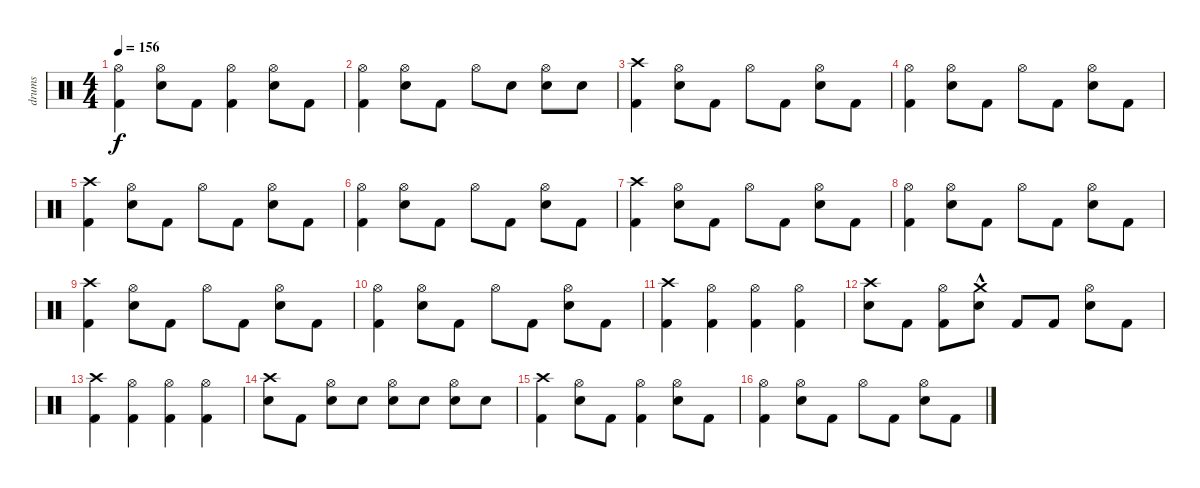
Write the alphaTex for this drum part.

\track ("drums" "drums") {instrument percussion}
\staff {score}
\articulation defaults
\ts (4 4)
\tempo 156
\clef neutral
\ks c
("Kick (hit) 2" "Hi-Hat (open)").4{dy f} ("Electric Snare (hit)" "Hi-Hat (open)").8 "Kick (hit) 2".8 ("Kick (hit) 2" "Hi-Hat (open)").4 ("Electric Snare (hit)" "Hi-Hat (open)").8 "Kick (hit) 2".8 |
("Kick (hit) 2" "Hi-Hat (open)").4 ("Electric Snare (hit)" "Hi-Hat (open)").8 "Kick (hit) 2".8 "Hi-Hat (open)".8 "Electric Snare (hit)".8 ("Electric Snare (hit)" "Hi-Hat (open)").8 "Electric Snare (hit)".8 |
("Kick (hit) 2" "Crash high (hit)").4 ("Electric Snare (hit)" "Hi-Hat (open)").8 "Kick (hit) 2".8 "Hi-Hat (open)".8 "Kick (hit) 2".8 ("Electric Snare (hit)" "Hi-Hat (open)").8 "Kick (hit) 2".8 |
("Kick (hit) 2" "Hi-Hat (open)").4 ("Electric Snare (hit)" "Hi-Hat (open)").8 "Kick (hit) 2".8 "Hi-Hat (open)".8 "Kick (hit) 2".8 ("Electric Snare (hit)" "Hi-Hat (open)").8 "Kick (hit) 2".8 |
("Kick (hit) 2" "Crash high (hit)").4 ("Electric Snare (hit)" "Hi-Hat (open)").8 "Kick (hit) 2".8 "Hi-Hat (open)".8 "Kick (hit) 2".8 ("Electric Snare (hit)" "Hi-Hat (open)").8 "Kick (hit) 2".8 |
("Kick (hit) 2" "Hi-Hat (open)").4 ("Electric Snare (hit)" "Hi-Hat (open)").8 "Kick (hit) 2".8 "Hi-Hat (open)".8 "Kick (hit) 2".8 ("Electric Snare (hit)" "Hi-Hat (open)").8 "Kick (hit) 2".8 |
("Kick (hit) 2" "Crash high (hit)").4 ("Electric Snare (hit)" "Hi-Hat (open)").8 "Kick (hit) 2".8 "Hi-Hat (open)".8 "Kick (hit) 2".8 ("Electric Snare (hit)" "Hi-Hat (open)").8 "Kick (hit) 2".8 |
("Kick (hit) 2" "Hi-Hat (open)").4 ("Electric Snare (hit)" "Hi-Hat (open)").8 "Kick (hit) 2".8 "Hi-Hat (open)".8 "Kick (hit) 2".8 ("Electric Snare (hit)" "Hi-Hat (open)").8 "Kick (hit) 2".8 |
("Kick (hit) 2" "Crash high (hit)").4 ("Electric Snare (hit)" "Hi-Hat (open)").8 "Kick (hit) 2".8 "Hi-Hat (open)".8 "Kick (hit) 2".8 ("Electric Snare (hit)" "Hi-Hat (open)").8 "Kick (hit) 2".8 |
("Kick (hit) 2" "Hi-Hat (open)").4 ("Electric Snare (hit)" "Hi-Hat (open)").8 "Kick (hit) 2".8 "Hi-Hat (open)".8 "Kick (hit) 2".8 ("Electric Snare (hit)" "Hi-Hat (open)").8 "Kick (hit) 2".8 |
("Kick (hit) 2" "Crash high (hit)").4 ("Kick (hit) 2" "Hi-Hat (open)").4 ("Kick (hit) 2" "Hi-Hat (open)").4 ("Kick (hit) 2" "Hi-Hat (open)").4 |
("Electric Snare (hit)" "Crash high (hit)").8 "Kick (hit) 2".8 ("Kick (hit) 2" "Hi-Hat (open)").8 ("Electric Snare (hit)" "Crash medium (hit)"{hac}).8 "Kick (hit) 2".8 "Kick (hit) 2".8 ("Electric Snare (hit)" "Hi-Hat (open)").8 "Kick (hit) 2".8 |
("Kick (hit) 2" "Crash high (hit)").4 ("Kick (hit) 2" "Hi-Hat (open)").4 ("Kick (hit) 2" "Hi-Hat (open)").4 ("Kick (hit) 2" "Hi-Hat (open)").4 |
("Electric Snare (hit)" "Crash high (hit)").8 "Kick (hit) 2".8 ("Electric Snare (hit)" "Hi-Hat (open)").8 "Electric Snare (hit)".8 ("Electric Snare (hit)" "Hi-Hat (open)").8 "Electric Snare (hit)".8 ("Electric Snare (hit)" "Hi-Hat (open)").8 "Electric Snare (hit)".8 |
("Kick (hit) 2" "Crash high (hit)").4 ("Electric Snare (hit)" "Hi-Hat (open)").8 "Kick (hit) 2".8 ("Kick (hit) 2" "Hi-Hat (open)").4 ("Electric Snare (hit)" "Hi-Hat (open)").8 "Kick (hit) 2".8 |
("Kick (hit) 2" "Hi-Hat (open)").4 ("Electric Snare (hit)" "Hi-Hat (open)").8 "Kick (hit) 2".8 "Hi-Hat (open)".8 "Kick (hit) 2".8 ("Electric Snare (hit)" "Hi-Hat (open)").8 "Kick (hit) 2".8
